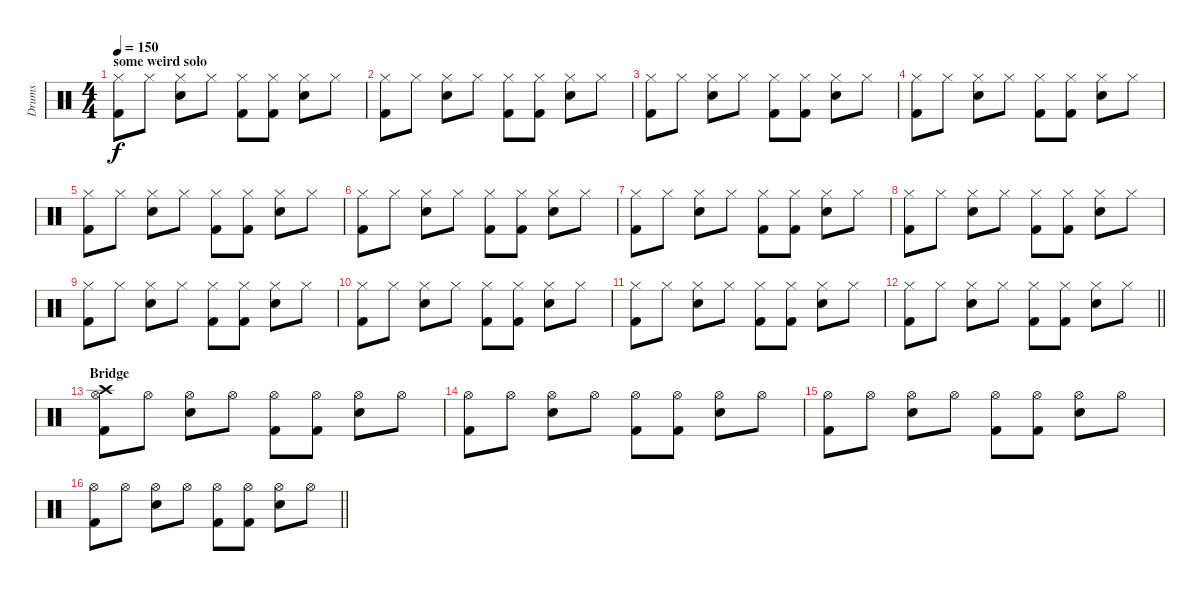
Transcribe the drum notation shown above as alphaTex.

\track ("Drums" "Drums") {instrument percussion}
\staff {score}
\articulation defaults
\ts (4 4)
\section ("" "some weird solo")
\tempo 150
\clef neutral
\ks c
("Hi-Hat (closed)" "Kick (hit) 2").8{dy f} "Hi-Hat (closed)".8 ("Hi-Hat (closed)" "Snare (hit) 2").8 "Hi-Hat (closed)".8 ("Hi-Hat (closed)" "Kick (hit) 2").8 ("Hi-Hat (closed)" "Kick (hit) 2").8 ("Hi-Hat (closed)" "Snare (hit) 2").8 "Hi-Hat (closed)".8 |
("Hi-Hat (closed)" "Kick (hit) 2").8 "Hi-Hat (closed)".8 ("Hi-Hat (closed)" "Snare (hit) 2").8 "Hi-Hat (closed)".8 ("Hi-Hat (closed)" "Kick (hit) 2").8 ("Hi-Hat (closed)" "Kick (hit) 2").8 ("Hi-Hat (closed)" "Snare (hit) 2").8 "Hi-Hat (closed)".8 |
("Hi-Hat (closed)" "Kick (hit) 2").8 "Hi-Hat (closed)".8 ("Hi-Hat (closed)" "Snare (hit) 2").8 "Hi-Hat (closed)".8 ("Hi-Hat (closed)" "Kick (hit) 2").8 ("Hi-Hat (closed)" "Kick (hit) 2").8 ("Hi-Hat (closed)" "Snare (hit) 2").8 "Hi-Hat (closed)".8 |
("Hi-Hat (closed)" "Kick (hit) 2").8 "Hi-Hat (closed)".8 ("Hi-Hat (closed)" "Snare (hit) 2").8 "Hi-Hat (closed)".8 ("Hi-Hat (closed)" "Kick (hit) 2").8 ("Hi-Hat (closed)" "Kick (hit) 2").8 ("Hi-Hat (closed)" "Snare (hit) 2").8 "Hi-Hat (closed)".8 |
("Hi-Hat (closed)" "Kick (hit) 2").8 "Hi-Hat (closed)".8 ("Hi-Hat (closed)" "Snare (hit) 2").8 "Hi-Hat (closed)".8 ("Hi-Hat (closed)" "Kick (hit) 2").8 ("Hi-Hat (closed)" "Kick (hit) 2").8 ("Hi-Hat (closed)" "Snare (hit) 2").8 "Hi-Hat (closed)".8 |
("Hi-Hat (closed)" "Kick (hit) 2").8 "Hi-Hat (closed)".8 ("Hi-Hat (closed)" "Snare (hit) 2").8 "Hi-Hat (closed)".8 ("Hi-Hat (closed)" "Kick (hit) 2").8 ("Hi-Hat (closed)" "Kick (hit) 2").8 ("Hi-Hat (closed)" "Snare (hit) 2").8 "Hi-Hat (closed)".8 |
("Hi-Hat (closed)" "Kick (hit) 2").8 "Hi-Hat (closed)".8 ("Hi-Hat (closed)" "Snare (hit) 2").8 "Hi-Hat (closed)".8 ("Hi-Hat (closed)" "Kick (hit) 2").8 ("Hi-Hat (closed)" "Kick (hit) 2").8 ("Hi-Hat (closed)" "Snare (hit) 2").8 "Hi-Hat (closed)".8 |
("Hi-Hat (closed)" "Kick (hit) 2").8 "Hi-Hat (closed)".8 ("Hi-Hat (closed)" "Snare (hit) 2").8 "Hi-Hat (closed)".8 ("Hi-Hat (closed)" "Kick (hit) 2").8 ("Hi-Hat (closed)" "Kick (hit) 2").8 ("Hi-Hat (closed)" "Snare (hit) 2").8 "Hi-Hat (closed)".8 |
("Hi-Hat (closed)" "Kick (hit) 2").8 "Hi-Hat (closed)".8 ("Hi-Hat (closed)" "Snare (hit) 2").8 "Hi-Hat (closed)".8 ("Hi-Hat (closed)" "Kick (hit) 2").8 ("Hi-Hat (closed)" "Kick (hit) 2").8 ("Hi-Hat (closed)" "Snare (hit) 2").8 "Hi-Hat (closed)".8 |
("Hi-Hat (closed)" "Kick (hit) 2").8 "Hi-Hat (closed)".8 ("Hi-Hat (closed)" "Snare (hit) 2").8 "Hi-Hat (closed)".8 ("Hi-Hat (closed)" "Kick (hit) 2").8 ("Hi-Hat (closed)" "Kick (hit) 2").8 ("Hi-Hat (closed)" "Snare (hit) 2").8 "Hi-Hat (closed)".8 |
("Hi-Hat (closed)" "Kick (hit) 2").8 "Hi-Hat (closed)".8 ("Hi-Hat (closed)" "Snare (hit) 2").8 "Hi-Hat (closed)".8 ("Hi-Hat (closed)" "Kick (hit) 2").8 ("Hi-Hat (closed)" "Kick (hit) 2").8 ("Hi-Hat (closed)" "Snare (hit) 2").8 "Hi-Hat (closed)".8 |
\barLineRight lightlight
("Hi-Hat (closed)" "Kick (hit) 2").8 "Hi-Hat (closed)".8 ("Hi-Hat (closed)" "Snare (hit) 2").8 "Hi-Hat (closed)".8 ("Hi-Hat (closed)" "Kick (hit) 2").8 ("Hi-Hat (closed)" "Kick (hit) 2").8 ("Hi-Hat (closed)" "Snare (hit) 2").8 "Hi-Hat (closed)".8 |
\section ("" "Bridge")
("Crash high (hit)" "Hi-Hat (open)" "Kick (hit) 2").8 "Hi-Hat (open)".8 ("Hi-Hat (open)" "Snare (hit) 2").8 "Hi-Hat (open)".8 ("Hi-Hat (open)" "Kick (hit) 2").8 ("Hi-Hat (open)" "Kick (hit) 2").8 ("Hi-Hat (open)" "Snare (hit) 2").8 "Hi-Hat (open)".8 |
("Hi-Hat (open)" "Kick (hit) 2").8 "Hi-Hat (open)".8 ("Hi-Hat (open)" "Snare (hit) 2").8 "Hi-Hat (open)".8 ("Hi-Hat (open)" "Kick (hit) 2").8 ("Hi-Hat (open)" "Kick (hit) 2").8 ("Hi-Hat (open)" "Snare (hit) 2").8 "Hi-Hat (open)".8 |
("Hi-Hat (open)" "Kick (hit) 2").8 "Hi-Hat (open)".8 ("Hi-Hat (open)" "Snare (hit) 2").8 "Hi-Hat (open)".8 ("Hi-Hat (open)" "Kick (hit) 2").8 ("Hi-Hat (open)" "Kick (hit) 2").8 ("Hi-Hat (open)" "Snare (hit) 2").8 "Hi-Hat (open)".8 |
\barLineRight lightlight
("Hi-Hat (open)" "Kick (hit) 2").8 "Hi-Hat (open)".8 ("Hi-Hat (open)" "Snare (hit) 2").8 "Hi-Hat (open)".8 ("Hi-Hat (open)" "Kick (hit) 2").8 ("Hi-Hat (open)" "Kick (hit) 2").8 ("Hi-Hat (open)" "Snare (hit) 2").8 "Hi-Hat (open)".8
